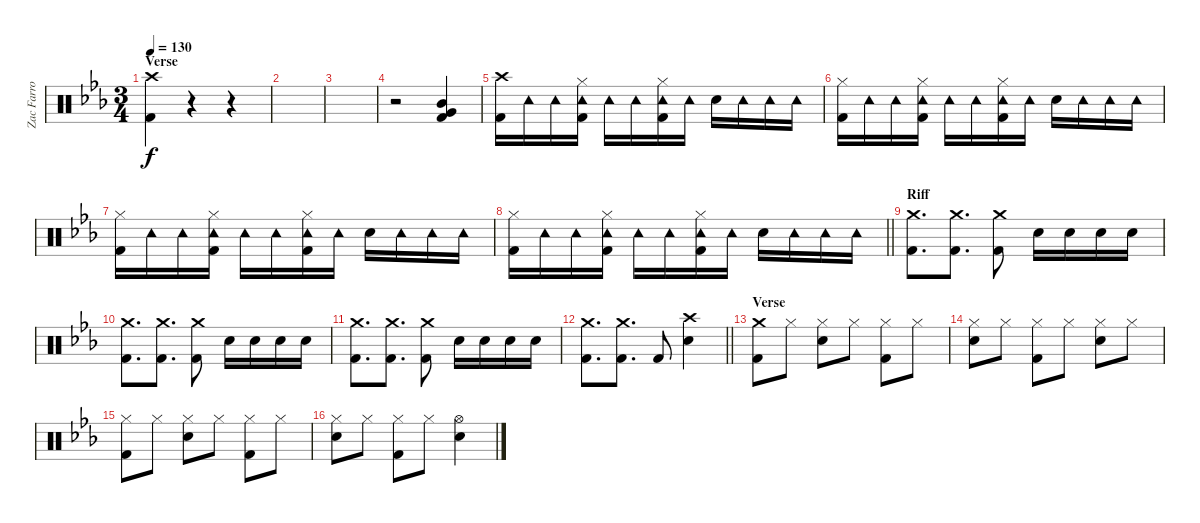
\track ("Zac Farro (Drums)" "Zac Farro ") {instrument percussion}
\staff {score}
\articulation defaults
\ts (3 4)
\section ("" "Verse")
\tempo 130
\clef neutral
\ks eb
("Crash high (hit)" "Kick (hit) 2").4{dy f} r.4 r.4 |
|
|
r.2 ("Kick (hit) 2" "Mid Tom (hit)" "Very Low Tom (hit)").4 |
("Crash high (hit)" "Kick (hit) 2").16 "Tambourine (hit)".16 "Tambourine (hit)".16 ("Hi-Hat (closed)" "Kick (hit) 2" "Tambourine (hit)").16 "Tambourine (hit)".16 "Tambourine (hit)".16 ("Hi-Hat (closed)" "Kick (hit) 2" "Tambourine (hit)").16 "Tambourine (hit)".16 "Electric Snare (hit)".16 "Tambourine (hit)".16 "Tambourine (hit)".16 "Tambourine (hit)".16 |
("Hi-Hat (closed)" "Kick (hit) 2").16 "Tambourine (hit)".16 "Tambourine (hit)".16 ("Hi-Hat (closed)" "Kick (hit) 2" "Tambourine (hit)").16 "Tambourine (hit)".16 "Tambourine (hit)".16 ("Hi-Hat (closed)" "Kick (hit) 2" "Tambourine (hit)").16 "Tambourine (hit)".16 "Electric Snare (hit)".16 "Tambourine (hit)".16 "Tambourine (hit)".16 "Tambourine (hit)".16 |
("Hi-Hat (closed)" "Kick (hit) 2").16 "Tambourine (hit)".16 "Tambourine (hit)".16 ("Hi-Hat (closed)" "Kick (hit) 2" "Tambourine (hit)").16 "Tambourine (hit)".16 "Tambourine (hit)".16 ("Hi-Hat (closed)" "Kick (hit) 2" "Tambourine (hit)").16 "Tambourine (hit)".16 "Electric Snare (hit)".16 "Tambourine (hit)".16 "Tambourine (hit)".16 "Tambourine (hit)".16 |
\barLineRight lightlight
("Hi-Hat (closed)" "Kick (hit) 2").16 "Tambourine (hit)".16 "Tambourine (hit)".16 ("Hi-Hat (closed)" "Kick (hit) 2" "Tambourine (hit)").16 "Tambourine (hit)".16 "Tambourine (hit)".16 ("Hi-Hat (closed)" "Kick (hit) 2" "Tambourine (hit)").16 "Tambourine (hit)".16 "Electric Snare (hit)".16 "Tambourine (hit)".16 "Tambourine (hit)".16 "Tambourine (hit)".16 |
\section ("" "Riff")
("Crash medium (hit)" "Kick (hit) 2").8{d} ("Crash medium (hit)" "Kick (hit) 2").8{d} ("Crash medium (hit)" "Kick (hit) 2").8 "Electric Snare (hit)".16 "Electric Snare (hit)".16 "Electric Snare (hit)".16 "Electric Snare (hit)".16 |
("Crash medium (hit)" "Kick (hit) 2").8{d} ("Crash medium (hit)" "Kick (hit) 2").8{d} ("Crash medium (hit)" "Kick (hit) 2").8 "Electric Snare (hit)".16 "Electric Snare (hit)".16 "Electric Snare (hit)".16 "Electric Snare (hit)".16 |
("Crash medium (hit)" "Kick (hit) 2").8{d} ("Crash medium (hit)" "Kick (hit) 2").8{d} ("Crash medium (hit)" "Kick (hit) 2").8 "Electric Snare (hit)".16 "Electric Snare (hit)".16 "Electric Snare (hit)".16 "Electric Snare (hit)".16 |
\barLineRight lightlight
("Crash medium (hit)" "Kick (hit) 2").8{d} ("Crash medium (hit)" "Kick (hit) 2").8{d} "Kick (hit) 2".8 ("Crash high (hit)" "Electric Snare (hit)").4 |
\section ("" "Verse")
("Crash medium (hit)" "Kick (hit) 2").8 "Hi-Hat (closed)".8 ("Hi-Hat (closed)" "Electric Snare (hit)").8 "Hi-Hat (closed)".8 ("Hi-Hat (closed)" "Kick (hit) 2").8 "Hi-Hat (closed)".8 |
("Hi-Hat (closed)" "Electric Snare (hit)").8 "Hi-Hat (closed)".8 ("Hi-Hat (closed)" "Kick (hit) 2").8 "Hi-Hat (closed)".8 ("Hi-Hat (closed)" "Electric Snare (hit)").8 "Hi-Hat (closed)".8 |
("Hi-Hat (closed)" "Kick (hit) 2").8 "Hi-Hat (closed)".8 ("Hi-Hat (closed)" "Electric Snare (hit)").8 "Hi-Hat (closed)".8 ("Hi-Hat (closed)" "Kick (hit) 2").8 "Hi-Hat (closed)".8 |
("Hi-Hat (closed)" "Electric Snare (hit)").8 "Hi-Hat (closed)".8 ("Hi-Hat (closed)" "Kick (hit) 2").8 "Hi-Hat (closed)".8 ("Hi-Hat (open)" "Electric Snare (hit)").4
